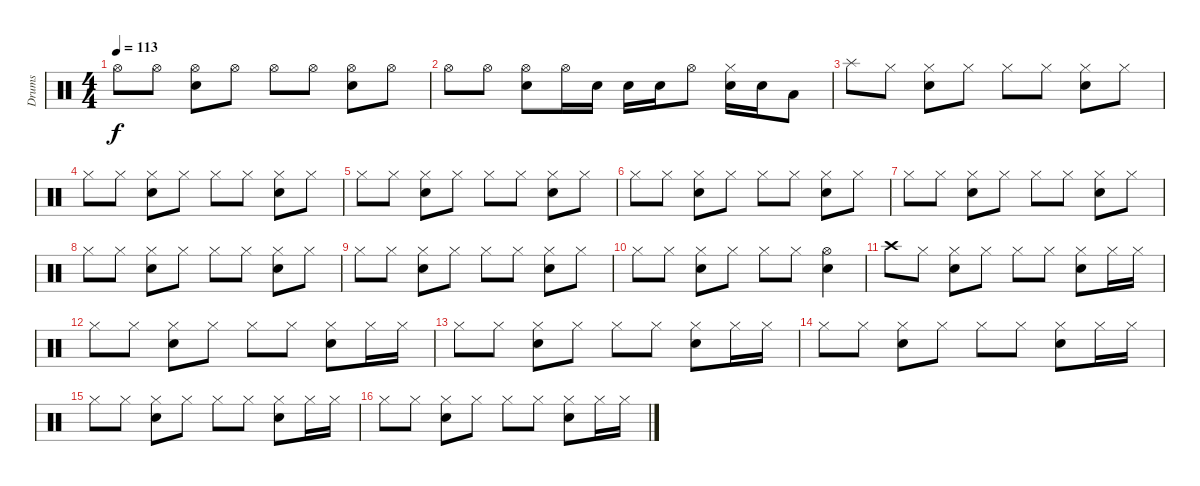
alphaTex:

\track ("Drums" "Drums") {instrument percussion}
\staff {score}
\articulation defaults
\ts (4 4)
\tempo 113
\clef neutral
\ks c "Hi-Hat (open)".8{dy f} "Hi-Hat (open)".8
("Hi-Hat (open)" "Snare (hit) 2").8 "Hi-Hat (open)".8 "Hi-Hat (open)".8 "Hi-Hat (open)".8 ("Hi-Hat (open)" "Snare (hit) 2").8 "Hi-Hat (open)".8 |
"Hi-Hat (open)".8 "Hi-Hat (open)".8 ("Hi-Hat (open)" "Snare (hit) 2").8 "Hi-Hat (open)".16 "Snare (hit) 2".16 "Snare (hit) 2".16 "Snare (hit) 2".16 "Hi-Hat (open)".8 ("Hi-Hat (closed)" "Snare (hit) 2").16 "Snare (hit) 2".16 "Low Tom (hit)".8 |
"Splash (hit)".8 "Hi-Hat (closed)".8 ("Hi-Hat (closed)" "Snare (hit) 2").8 "Hi-Hat (closed)".8 "Hi-Hat (closed)".8 "Hi-Hat (closed)".8 ("Hi-Hat (closed)" "Snare (hit) 2").8 "Hi-Hat (closed)".8 |
"Hi-Hat (closed)".8 "Hi-Hat (closed)".8 ("Hi-Hat (closed)" "Snare (hit) 2").8 "Hi-Hat (closed)".8 "Hi-Hat (closed)".8 "Hi-Hat (closed)".8 ("Hi-Hat (closed)" "Snare (hit) 2").8 "Hi-Hat (closed)".8 |
"Hi-Hat (closed)".8 "Hi-Hat (closed)".8 ("Hi-Hat (closed)" "Snare (hit) 2").8 "Hi-Hat (closed)".8 "Hi-Hat (closed)".8 "Hi-Hat (closed)".8 ("Hi-Hat (closed)" "Snare (hit) 2").8 "Hi-Hat (closed)".8 |
"Hi-Hat (closed)".8 "Hi-Hat (closed)".8 ("Hi-Hat (closed)" "Snare (hit) 2").8 "Hi-Hat (closed)".8 "Hi-Hat (closed)".8 "Hi-Hat (closed)".8 ("Hi-Hat (closed)" "Snare (hit) 2").8 "Hi-Hat (closed)".8 |
"Hi-Hat (closed)".8 "Hi-Hat (closed)".8 ("Hi-Hat (closed)" "Snare (hit) 2").8 "Hi-Hat (closed)".8 "Hi-Hat (closed)".8 "Hi-Hat (closed)".8 ("Hi-Hat (closed)" "Snare (hit) 2").8 "Hi-Hat (closed)".8 |
"Hi-Hat (closed)".8 "Hi-Hat (closed)".8 ("Hi-Hat (closed)" "Snare (hit) 2").8 "Hi-Hat (closed)".8 "Hi-Hat (closed)".8 "Hi-Hat (closed)".8 ("Hi-Hat (closed)" "Snare (hit) 2").8 "Hi-Hat (closed)".8 |
"Hi-Hat (closed)".8 "Hi-Hat (closed)".8 ("Hi-Hat (closed)" "Snare (hit) 2").8 "Hi-Hat (closed)".8 "Hi-Hat (closed)".8 "Hi-Hat (closed)".8 ("Hi-Hat (closed)" "Snare (hit) 2").8 "Hi-Hat (closed)".8 |
"Hi-Hat (closed)".8 "Hi-Hat (closed)".8 ("Hi-Hat (closed)" "Snare (hit) 2").8 "Hi-Hat (closed)".8 "Hi-Hat (closed)".8 "Hi-Hat (closed)".8 ("Hi-Hat (open)" "Snare (hit) 2").4 |
"Crash high (hit)".8 "Hi-Hat (closed)".8 ("Hi-Hat (closed)" "Snare (hit) 2").8 "Hi-Hat (closed)".8 "Hi-Hat (closed)".8 "Hi-Hat (closed)".8 ("Hi-Hat (closed)" "Snare (hit) 2").8 "Hi-Hat (closed)".16 "Hi-Hat (closed)".16 |
"Hi-Hat (closed)".8 "Hi-Hat (closed)".8 ("Hi-Hat (closed)" "Snare (hit) 2").8 "Hi-Hat (closed)".8 "Hi-Hat (closed)".8 "Hi-Hat (closed)".8 ("Hi-Hat (closed)" "Snare (hit) 2").8 "Hi-Hat (closed)".16 "Hi-Hat (closed)".16 |
"Hi-Hat (closed)".8 "Hi-Hat (closed)".8 ("Hi-Hat (closed)" "Snare (hit) 2").8 "Hi-Hat (closed)".8 "Hi-Hat (closed)".8 "Hi-Hat (closed)".8 ("Hi-Hat (closed)" "Snare (hit) 2").8 "Hi-Hat (closed)".16 "Hi-Hat (closed)".16 |
"Hi-Hat (closed)".8 "Hi-Hat (closed)".8 ("Hi-Hat (closed)" "Snare (hit) 2").8 "Hi-Hat (closed)".8 "Hi-Hat (closed)".8 "Hi-Hat (closed)".8 ("Hi-Hat (closed)" "Snare (hit) 2").8 "Hi-Hat (closed)".16 "Hi-Hat (closed)".16 |
"Hi-Hat (closed)".8 "Hi-Hat (closed)".8 ("Hi-Hat (closed)" "Snare (hit) 2").8 "Hi-Hat (closed)".8 "Hi-Hat (closed)".8 "Hi-Hat (closed)".8 ("Hi-Hat (closed)" "Snare (hit) 2").8 "Hi-Hat (closed)".16 "Hi-Hat (closed)".16 |
"Hi-Hat (closed)".8 "Hi-Hat (closed)".8 ("Hi-Hat (closed)" "Snare (hit) 2").8 "Hi-Hat (closed)".8 "Hi-Hat (closed)".8 "Hi-Hat (closed)".8 ("Hi-Hat (closed)" "Snare (hit) 2").8 "Hi-Hat (closed)".16 "Hi-Hat (closed)".16
